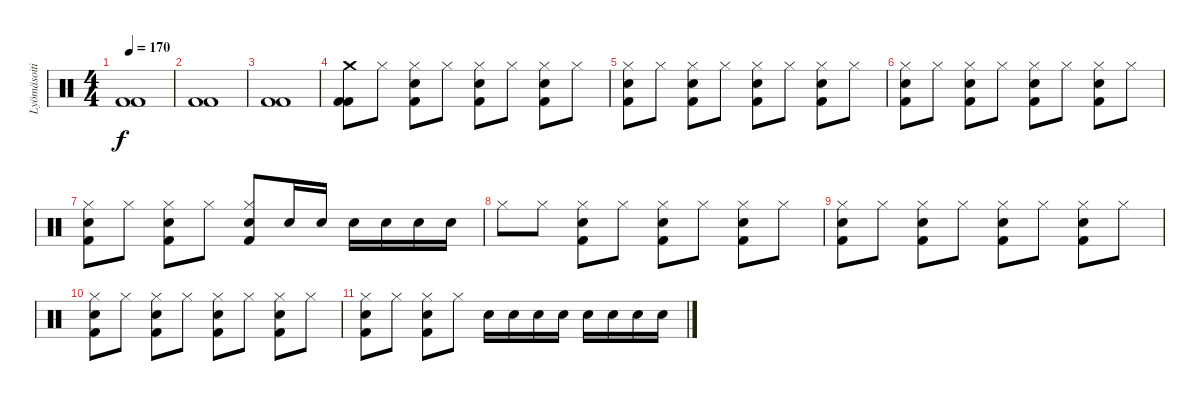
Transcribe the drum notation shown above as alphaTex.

\track ("Lyömäsoitin" "Lyömäsoiti") {instrument percussion}
\staff {score}
\articulation defaults
\ts (4 4)
\tempo 170
\clef neutral
\ks c
("Kick (hit) 2" "Kick (hit) 2").1{dy f} |
("Kick (hit) 2" "Kick (hit) 2").1 |
("Kick (hit) 2" "Kick (hit) 2").1 |
("Crash medium (hit)" "Kick (hit) 2" "Kick (hit) 2").8 "Hi-Hat (closed)".8 ("Hi-Hat (closed)" "Snare (hit) 2" "Kick (hit) 2").8 "Hi-Hat (closed)".8 ("Hi-Hat (closed)" "Snare (hit) 2" "Kick (hit) 2").8 "Hi-Hat (closed)".8 ("Hi-Hat (closed)" "Snare (hit) 2" "Kick (hit) 2").8 "Hi-Hat (closed)".8 |
("Hi-Hat (closed)" "Snare (hit) 2" "Kick (hit) 2").8 "Hi-Hat (closed)".8 ("Hi-Hat (closed)" "Snare (hit) 2" "Kick (hit) 2").8 "Hi-Hat (closed)".8 ("Hi-Hat (closed)" "Snare (hit) 2" "Kick (hit) 2").8 "Hi-Hat (closed)".8 ("Hi-Hat (closed)" "Snare (hit) 2" "Kick (hit) 2").8 "Hi-Hat (closed)".8 |
("Hi-Hat (closed)" "Snare (hit) 2" "Kick (hit) 2").8 "Hi-Hat (closed)".8 ("Hi-Hat (closed)" "Snare (hit) 2" "Kick (hit) 2").8 "Hi-Hat (closed)".8 ("Hi-Hat (closed)" "Snare (hit) 2" "Kick (hit) 2").8 "Hi-Hat (closed)".8 ("Hi-Hat (closed)" "Snare (hit) 2" "Kick (hit) 2").8 "Hi-Hat (closed)".8 |
("Hi-Hat (closed)" "Snare (hit) 2" "Kick (hit) 2").8 "Hi-Hat (closed)".8 ("Hi-Hat (closed)" "Snare (hit) 2" "Kick (hit) 2").8 "Hi-Hat (closed)".8 ("Hi-Hat (closed)" "Snare (hit) 2" "Kick (hit) 2").8 "Snare (hit) 2".16 "Snare (hit) 2".16 "Snare (hit) 2".16 "Snare (hit) 2".16 "Snare (hit) 2".16 "Snare (hit) 2".16 |
"Hi-Hat (closed)".8 "Hi-Hat (closed)".8 ("Hi-Hat (closed)" "Snare (hit) 2" "Kick (hit) 2").8 "Hi-Hat (closed)".8 ("Hi-Hat (closed)" "Snare (hit) 2" "Kick (hit) 2").8 "Hi-Hat (closed)".8 ("Hi-Hat (closed)" "Snare (hit) 2" "Kick (hit) 2").8 "Hi-Hat (closed)".8 |
("Hi-Hat (closed)" "Snare (hit) 2" "Kick (hit) 2").8 "Hi-Hat (closed)".8 ("Hi-Hat (closed)" "Snare (hit) 2" "Kick (hit) 2").8 "Hi-Hat (closed)".8 ("Hi-Hat (closed)" "Snare (hit) 2" "Kick (hit) 2").8 "Hi-Hat (closed)".8 ("Hi-Hat (closed)" "Snare (hit) 2" "Kick (hit) 2").8 "Hi-Hat (closed)".8 |
("Hi-Hat (closed)" "Snare (hit) 2" "Kick (hit) 2").8 "Hi-Hat (closed)".8 ("Hi-Hat (closed)" "Snare (hit) 2" "Kick (hit) 2").8 "Hi-Hat (closed)".8 ("Hi-Hat (closed)" "Snare (hit) 2" "Kick (hit) 2").8 "Hi-Hat (closed)".8 ("Hi-Hat (closed)" "Snare (hit) 2" "Kick (hit) 2").8 "Hi-Hat (closed)".8 |
("Hi-Hat (closed)" "Snare (hit) 2" "Kick (hit) 2").8 "Hi-Hat (closed)".8 ("Hi-Hat (closed)" "Snare (hit) 2" "Kick (hit) 2").8 "Hi-Hat (closed)".8 "Snare (hit) 2".16 "Snare (hit) 2".16 "Snare (hit) 2".16 "Snare (hit) 2".16 "Snare (hit) 2".16 "Snare (hit) 2".16 "Snare (hit) 2".16 "Snare (hit) 2".16
